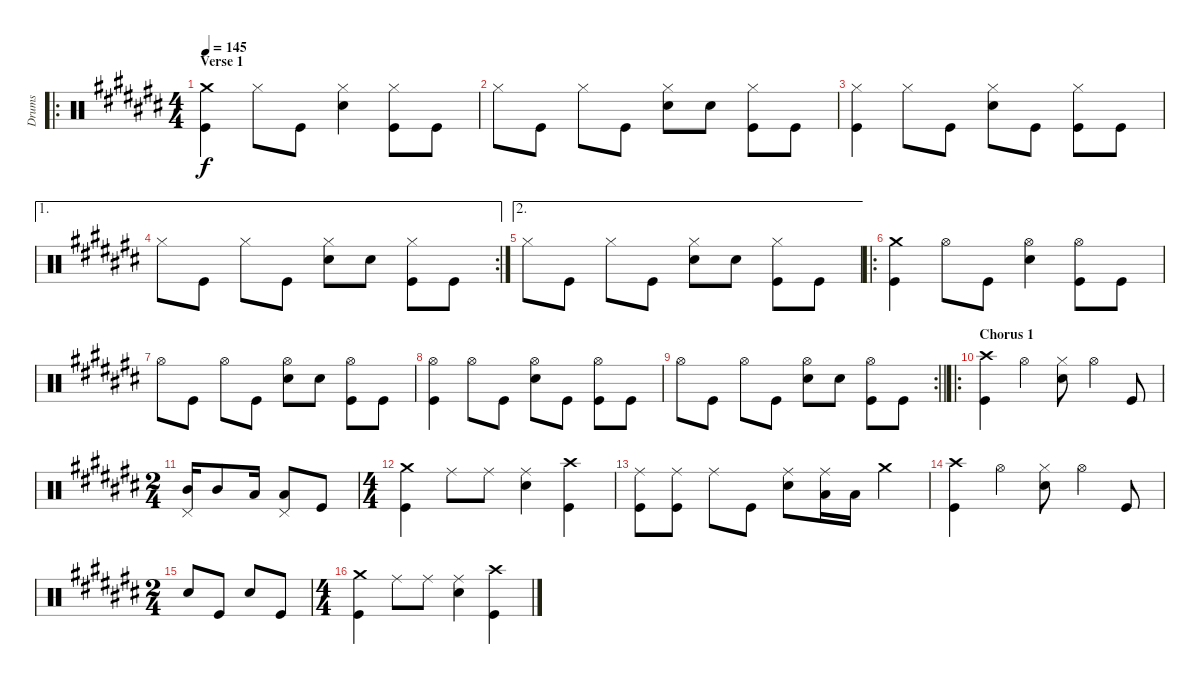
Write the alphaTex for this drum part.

\track ("Drums" "Drums") {instrument percussion}
\staff {score}
\articulation defaults
\ro
\ts (4 4)
\section ("" "Verse 1")
\tempo 145
\clef neutral
\ks c#
("Crash medium (hit)" "Kick (hit)").4{dy f} "Hi-Hat (closed)".8 "Kick (hit)".8 ("Hi-Hat (closed)" "Snare (hit) 2").4 ("Hi-Hat (closed)" "Kick (hit)").8 "Kick (hit)".8 |
"Hi-Hat (closed)".8 "Kick (hit)".8 "Hi-Hat (closed)".8 "Kick (hit)".8 ("Hi-Hat (closed)" "Snare (hit) 2").8 "Snare (hit) 2".8 ("Hi-Hat (closed)" "Kick (hit)").8 "Kick (hit)".8 |
("Hi-Hat (closed)" "Kick (hit)").4 "Hi-Hat (closed)".8 "Kick (hit)".8 ("Hi-Hat (closed)" "Snare (hit) 2").8 "Kick (hit)".8 ("Hi-Hat (closed)" "Kick (hit)").8 "Kick (hit)".8 |
\ae 1
\rc 2 "Hi-Hat (closed)".8 "Kick (hit)".8 "Hi-Hat (closed)".8 "Kick (hit)".8
("Hi-Hat (closed)" "Snare (hit) 2").8 "Snare (hit) 2".8 ("Hi-Hat (closed)" "Kick (hit)").8 "Kick (hit)".8 |
\ae 2 "Hi-Hat (closed)".8 "Kick (hit)".8 "Hi-Hat (closed)".8 "Kick (hit)".8
("Hi-Hat (closed)" "Snare (hit) 2").8 "Snare (hit) 2".8 ("Hi-Hat (closed)" "Kick (hit)").8 "Kick (hit)".8 |
\ro
("Crash medium (hit)" "Kick (hit)").4 "Hi-Hat (open)".8 "Kick (hit)".8 ("Hi-Hat (open)" "Snare (hit) 2").4 ("Hi-Hat (open)" "Kick (hit)").8 "Kick (hit)".8 |
"Hi-Hat (open)".8 "Kick (hit)".8 "Hi-Hat (open)".8 "Kick (hit)".8 ("Hi-Hat (open)" "Snare (hit) 2").8 "Snare (hit) 2".8 ("Hi-Hat (open)" "Kick (hit)").8 "Kick (hit)".8 |
("Hi-Hat (open)" "Kick (hit)").4 "Hi-Hat (open)".8 "Kick (hit)".8 ("Hi-Hat (open)" "Snare (hit) 2").8 "Kick (hit)".8 ("Hi-Hat (open)" "Kick (hit)").8 "Kick (hit)".8 |
\rc 2
\barLineRight lightlight "Hi-Hat (open)".8 "Kick (hit)".8 "Hi-Hat (open)".8 "Kick (hit)".8
("Hi-Hat (open)" "Snare (hit) 2").8 "Snare (hit) 2".8 ("Hi-Hat (open)" "Kick (hit)").8 "Kick (hit)".8 |
\ro
\section ("" "Chorus 1")
("Crash high (hit)" "Kick (hit)").4 "Hi-Hat (open)".4 ("Hi-Hat (closed)" "Snare (hit) 2").8 "Hi-Hat (open)".4 "Kick (hit)".8 |
\ts (2 4)
("Pedal Hi-Hat (hit)" "Mid Tom (hit)").16 "Mid Tom (hit)".8 "Low Tom (hit)".16 ("Pedal Hi-Hat (hit)" "Low Tom (hit)").8 "Kick (hit)".8 |
\ts (4 4)
("Crash medium (hit)" "Kick (hit)").4 "Ride (middle)".8 "Ride (middle)".8 ("Ride (middle)" "Snare (hit) 2").4 ("Crash high (hit)" "Kick (hit)").4 |
("Ride (middle)" "Kick (hit)").8 ("Ride (middle)" "Kick (hit)").8 "Ride (middle)".8 "Kick (hit)".8 ("Ride (middle)" "Snare (hit) 2").8 ("Ride (middle)" "Low Tom (hit)").16 "Low Tom (hit)".16 "Crash medium (hit)".4 |
("Crash high (hit)" "Kick (hit)").4 "Hi-Hat (open)".4 ("Hi-Hat (closed)" "Snare (hit) 2").8 "Hi-Hat (open)".4 "Kick (hit)".8 |
\ts (2 4)
"Snare (hit) 2".8 "Kick (hit)".8 "Snare (hit) 2".8 "Kick (hit)".8 |
\ts (4 4)
("Crash medium (hit)" "Kick (hit)").4 "Ride (middle)".8 "Ride (middle)".8 ("Ride (middle)" "Snare (hit) 2").4 ("Crash high (hit)" "Kick (hit)").4
